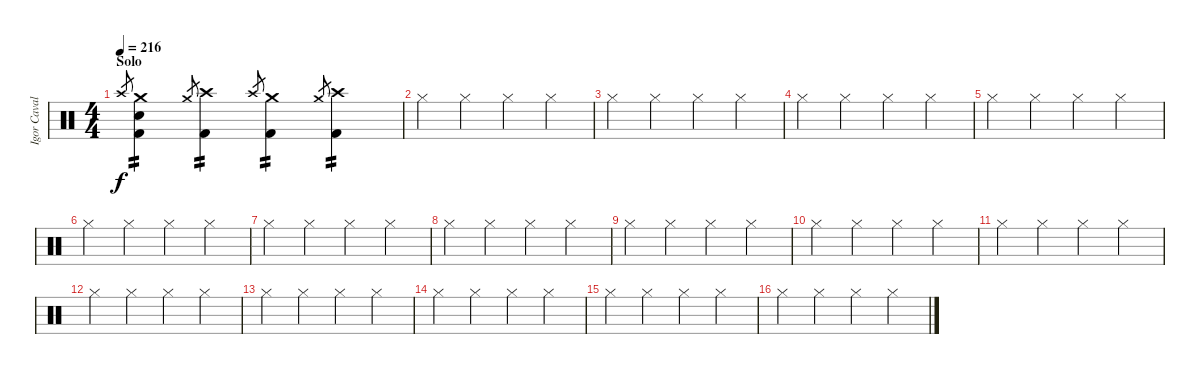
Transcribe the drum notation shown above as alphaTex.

\track ("Igor Cavalera" "Igor Caval") {instrument percussion}
\staff {score}
\articulation defaults
\ts (4 4)
\section ("" "Solo")
\tempo 216
\clef neutral
\ks c "Crash high (hit)".8{gr dy f}
("Crash medium (hit)" "Snare (hit) 2" "Kick (hit) 2").4{tp 2} "Crash medium (hit)".8{gr} ("Crash high (hit)" "Kick (hit) 2").4{tp 2} "Crash high (hit)".8{gr} ("Crash medium (hit)" "Kick (hit) 2").4{tp 2} "Crash medium (hit)".8{gr} ("Crash high (hit)" "Kick (hit) 2").4{tp 2} |
"Hi-Hat (closed)".4 "Hi-Hat (closed)".4 "Hi-Hat (closed)".4 "Hi-Hat (closed)".4 |
"Hi-Hat (closed)".4 "Hi-Hat (closed)".4 "Hi-Hat (closed)".4 "Hi-Hat (closed)".4 |
"Hi-Hat (closed)".4 "Hi-Hat (closed)".4 "Hi-Hat (closed)".4 "Hi-Hat (closed)".4 |
"Hi-Hat (closed)".4 "Hi-Hat (closed)".4 "Hi-Hat (closed)".4 "Hi-Hat (closed)".4 |
"Hi-Hat (closed)".4 "Hi-Hat (closed)".4 "Hi-Hat (closed)".4 "Hi-Hat (closed)".4 |
"Hi-Hat (closed)".4 "Hi-Hat (closed)".4 "Hi-Hat (closed)".4 "Hi-Hat (closed)".4 |
"Hi-Hat (closed)".4 "Hi-Hat (closed)".4 "Hi-Hat (closed)".4 "Hi-Hat (closed)".4 |
"Hi-Hat (closed)".4 "Hi-Hat (closed)".4 "Hi-Hat (closed)".4 "Hi-Hat (closed)".4 |
"Hi-Hat (closed)".4 "Hi-Hat (closed)".4 "Hi-Hat (closed)".4 "Hi-Hat (closed)".4 |
"Hi-Hat (closed)".4 "Hi-Hat (closed)".4 "Hi-Hat (closed)".4 "Hi-Hat (closed)".4 |
"Hi-Hat (closed)".4 "Hi-Hat (closed)".4 "Hi-Hat (closed)".4 "Hi-Hat (closed)".4 |
"Hi-Hat (closed)".4 "Hi-Hat (closed)".4 "Hi-Hat (closed)".4 "Hi-Hat (closed)".4 |
"Hi-Hat (closed)".4 "Hi-Hat (closed)".4 "Hi-Hat (closed)".4 "Hi-Hat (closed)".4 |
"Hi-Hat (closed)".4 "Hi-Hat (closed)".4 "Hi-Hat (closed)".4 "Hi-Hat (closed)".4 |
"Hi-Hat (closed)".4 "Hi-Hat (closed)".4 "Hi-Hat (closed)".4 "Hi-Hat (closed)".4
